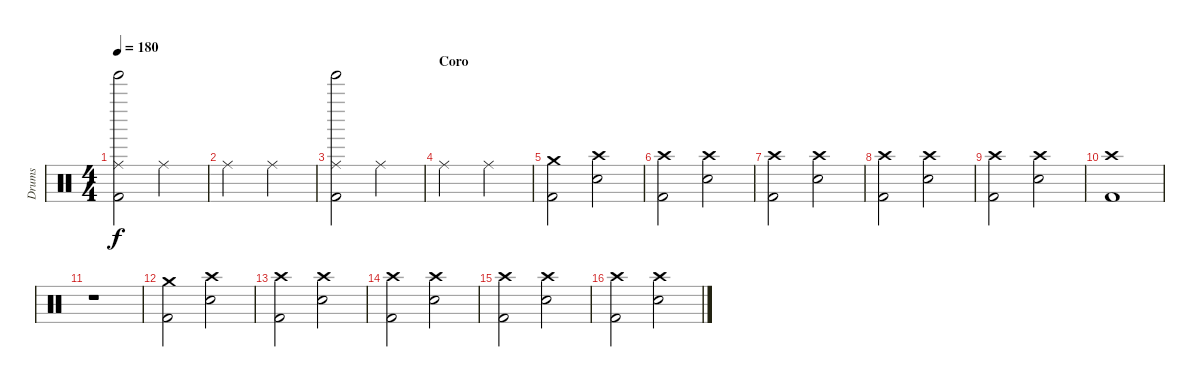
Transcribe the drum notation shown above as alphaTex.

\track ("Drums" "Drums") {instrument percussion}
\staff {score}
\articulation defaults
\ts (4 4)
\tempo 180
\clef neutral
\ks c
("Ride (middle)" "Kick (hit) 2" "Tinkle Bell (hit)").2{dy f} "Ride (middle)".2 |
"Ride (middle)".2 "Ride (middle)".2 |
("Ride (middle)" "Kick (hit) 2" "Tinkle Bell (hit)").2 "Ride (middle)".2 |
\section ("" "Coro")
"Ride (middle)".2 "Ride (middle)".2 |
("Crash medium (hit)" "Kick (hit) 2").2 ("Crash high (hit)" "Snare (hit) 2").2 |
("Crash high (hit)" "Kick (hit) 2").2 ("Crash high (hit)" "Snare (hit) 2").2 |
("Crash high (hit)" "Kick (hit) 2").2 ("Crash high (hit)" "Snare (hit) 2").2 |
("Kick (hit) 2" "Crash high (hit)").2 ("Crash high (hit)" "Snare (hit) 2").2 |
("Kick (hit) 2" "Crash high (hit)").2 ("Crash high (hit)" "Snare (hit) 2").2 |
("Crash high (hit)" "Kick (hit) 2").1 |
r.1 |
("Crash medium (hit)" "Kick (hit) 2").2 ("Crash high (hit)" "Snare (hit) 2").2 |
("Crash high (hit)" "Kick (hit) 2").2 ("Crash high (hit)" "Snare (hit) 2").2 |
("Crash high (hit)" "Kick (hit) 2").2 ("Crash high (hit)" "Snare (hit) 2").2 |
("Crash high (hit)" "Kick (hit) 2").2 ("Crash high (hit)" "Snare (hit) 2").2 |
("Crash high (hit)" "Kick (hit) 2").2 ("Crash high (hit)" "Snare (hit) 2").2
